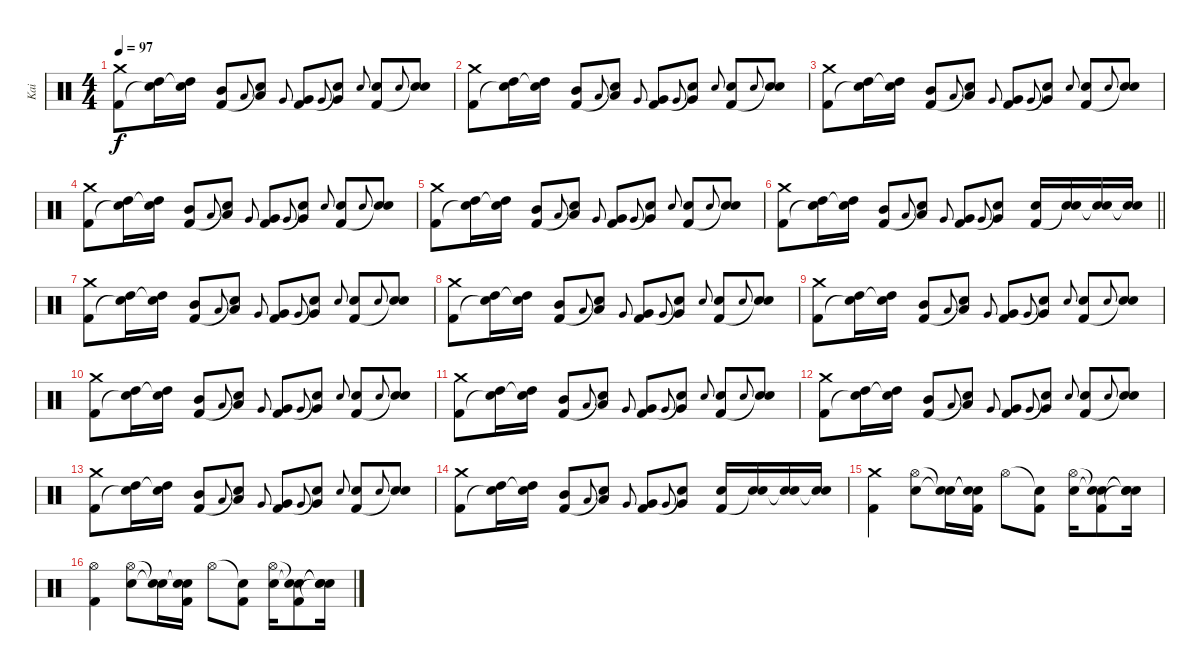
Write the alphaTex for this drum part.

\track ("Kai" "Kai") {instrument percussion}
\staff {score}
\articulation defaults
\ts (4 4)
\tempo 97
\clef neutral
\ks c
("Crash medium (hit)" "Kick (hit) 2").8{dy f} ("High Tom (hit)" "Snare (hit)"{t}).16 ("High Tom (hit)" "Snare (hit)"{t}).16 ("Mid Tom (hit)" "Kick (hit) 2").8 "Low Tom (hit)".8{gr onbeat} ("Low Tom (hit)" "Snare (hit)"{t}).8 "Very Low Tom (hit)".8{gr onbeat} ("Very Low Tom (hit)" "Kick (hit) 2").8 "Very Low Tom (hit)".8{gr onbeat} ("Very Low Tom (hit)" "Snare (hit)"{t}).8 "Snare (hit) 2".8{gr onbeat} ("Snare (hit) 2" "Kick (hit) 2").8 "Snare (hit) 2".8{gr onbeat} ("Snare (hit) 2" "Snare (hit)"{t}).8 |
("Crash medium (hit)" "Kick (hit) 2").8 ("High Tom (hit)" "Snare (hit)"{t}).16 ("High Tom (hit)" "Snare (hit)"{t}).16 ("Mid Tom (hit)" "Kick (hit) 2").8 "Low Tom (hit)".8{gr onbeat} ("Low Tom (hit)" "Snare (hit)"{t}).8 "Very Low Tom (hit)".8{gr onbeat} ("Very Low Tom (hit)" "Kick (hit) 2").8 "Very Low Tom (hit)".8{gr onbeat} ("Very Low Tom (hit)" "Snare (hit)"{t}).8 "Snare (hit) 2".8{gr onbeat} ("Snare (hit) 2" "Kick (hit) 2").8 "Snare (hit) 2".8{gr onbeat} ("Snare (hit) 2" "Snare (hit)"{t}).8 |
("Crash medium (hit)" "Kick (hit) 2").8 ("High Tom (hit)" "Snare (hit)"{t}).16 ("High Tom (hit)" "Snare (hit)"{t}).16 ("Mid Tom (hit)" "Kick (hit) 2").8 "Low Tom (hit)".8{gr onbeat} ("Low Tom (hit)" "Snare (hit)"{t}).8 "Very Low Tom (hit)".8{gr onbeat} ("Very Low Tom (hit)" "Kick (hit) 2").8 "Very Low Tom (hit)".8{gr onbeat} ("Very Low Tom (hit)" "Snare (hit)"{t}).8 "Snare (hit) 2".8{gr onbeat} ("Snare (hit) 2" "Kick (hit) 2").8 "Snare (hit) 2".8{gr onbeat} ("Snare (hit) 2" "Snare (hit)"{t}).8 |
("Crash medium (hit)" "Kick (hit) 2").8 ("High Tom (hit)" "Snare (hit)"{t}).16 ("High Tom (hit)" "Snare (hit)"{t}).16 ("Mid Tom (hit)" "Kick (hit) 2").8 "Low Tom (hit)".8{gr onbeat} ("Low Tom (hit)" "Snare (hit)"{t}).8 "Very Low Tom (hit)".8{gr onbeat} ("Very Low Tom (hit)" "Kick (hit) 2").8 "Very Low Tom (hit)".8{gr onbeat} ("Very Low Tom (hit)" "Snare (hit)"{t}).8 "Snare (hit) 2".8{gr onbeat} ("Snare (hit) 2" "Kick (hit) 2").8 "Snare (hit) 2".8{gr onbeat} ("Snare (hit) 2" "Snare (hit)"{t}).8 |
("Crash medium (hit)" "Kick (hit) 2").8 ("High Tom (hit)" "Snare (hit)"{t}).16 ("High Tom (hit)" "Snare (hit)"{t}).16 ("Mid Tom (hit)" "Kick (hit) 2").8 "Low Tom (hit)".8{gr onbeat} ("Low Tom (hit)" "Snare (hit)"{t}).8 "Very Low Tom (hit)".8{gr onbeat} ("Very Low Tom (hit)" "Kick (hit) 2").8 "Very Low Tom (hit)".8{gr onbeat} ("Very Low Tom (hit)" "Snare (hit)"{t}).8 "Snare (hit) 2".8{gr onbeat} ("Snare (hit) 2" "Kick (hit) 2").8 "Snare (hit) 2".8{gr onbeat} ("Snare (hit) 2" "Snare (hit)"{t}).8 |
\barLineRight lightlight
("Crash medium (hit)" "Kick (hit) 2").8 ("High Tom (hit)" "Snare (hit)"{t}).16 ("High Tom (hit)" "Snare (hit)"{t}).16 ("Mid Tom (hit)" "Kick (hit) 2").8 "Low Tom (hit)".8{gr onbeat} ("Low Tom (hit)" "Snare (hit)"{t}).8 "Very Low Tom (hit)".8{gr onbeat} ("Very Low Tom (hit)" "Kick (hit) 2").8 "Very Low Tom (hit)".8{gr onbeat} ("Very Low Tom (hit)" "Snare (hit)"{t}).8 ("Snare (hit) 2" "Kick (hit) 2").16 ("Snare (hit) 2" "Snare (hit)"{t}).16 ("Snare (hit) 2" "Snare (hit)"{t}).16 ("Snare (hit) 2" "Snare (hit)"{t}).16 |
("Crash medium (hit)" "Kick (hit) 2").8 ("High Tom (hit)" "Snare (hit)"{t}).16 ("High Tom (hit)" "Snare (hit)"{t}).16 ("Mid Tom (hit)" "Kick (hit) 2").8 "Low Tom (hit)".8{gr onbeat} ("Low Tom (hit)" "Snare (hit)"{t}).8 "Very Low Tom (hit)".8{gr onbeat} ("Very Low Tom (hit)" "Kick (hit) 2").8 "Very Low Tom (hit)".8{gr onbeat} ("Very Low Tom (hit)" "Snare (hit)"{t}).8 "Snare (hit) 2".8{gr onbeat} ("Snare (hit) 2" "Kick (hit) 2").8 "Snare (hit) 2".8{gr onbeat} ("Snare (hit) 2" "Snare (hit)"{t}).8 |
("Crash medium (hit)" "Kick (hit) 2").8 ("High Tom (hit)" "Snare (hit)"{t}).16 ("High Tom (hit)" "Snare (hit)"{t}).16 ("Mid Tom (hit)" "Kick (hit) 2").8 "Low Tom (hit)".8{gr onbeat} ("Low Tom (hit)" "Snare (hit)"{t}).8 "Very Low Tom (hit)".8{gr onbeat} ("Very Low Tom (hit)" "Kick (hit) 2").8 "Very Low Tom (hit)".8{gr onbeat} ("Very Low Tom (hit)" "Snare (hit)"{t}).8 "Snare (hit) 2".8{gr onbeat} ("Snare (hit) 2" "Kick (hit) 2").8 "Snare (hit) 2".8{gr onbeat} ("Snare (hit) 2" "Snare (hit)"{t}).8 |
("Crash medium (hit)" "Kick (hit) 2").8 ("High Tom (hit)" "Snare (hit)"{t}).16 ("High Tom (hit)" "Snare (hit)"{t}).16 ("Mid Tom (hit)" "Kick (hit) 2").8 "Low Tom (hit)".8{gr onbeat} ("Low Tom (hit)" "Snare (hit)"{t}).8 "Very Low Tom (hit)".8{gr onbeat} ("Very Low Tom (hit)" "Kick (hit) 2").8 "Very Low Tom (hit)".8{gr onbeat} ("Very Low Tom (hit)" "Snare (hit)"{t}).8 "Snare (hit) 2".8{gr onbeat} ("Snare (hit) 2" "Kick (hit) 2").8 "Snare (hit) 2".8{gr onbeat} ("Snare (hit) 2" "Snare (hit)"{t}).8 |
("Crash medium (hit)" "Kick (hit) 2").8 ("High Tom (hit)" "Snare (hit)"{t}).16 ("High Tom (hit)" "Snare (hit)"{t}).16 ("Mid Tom (hit)" "Kick (hit) 2").8 "Low Tom (hit)".8{gr onbeat} ("Low Tom (hit)" "Snare (hit)"{t}).8 "Very Low Tom (hit)".8{gr onbeat} ("Very Low Tom (hit)" "Kick (hit) 2").8 "Very Low Tom (hit)".8{gr onbeat} ("Very Low Tom (hit)" "Snare (hit)"{t}).8 "Snare (hit) 2".8{gr onbeat} ("Snare (hit) 2" "Kick (hit) 2").8 "Snare (hit) 2".8{gr onbeat} ("Snare (hit) 2" "Snare (hit)"{t}).8 |
("Crash medium (hit)" "Kick (hit) 2").8 ("High Tom (hit)" "Snare (hit)"{t}).16 ("High Tom (hit)" "Snare (hit)"{t}).16 ("Mid Tom (hit)" "Kick (hit) 2").8 "Low Tom (hit)".8{gr onbeat} ("Low Tom (hit)" "Snare (hit)"{t}).8 "Very Low Tom (hit)".8{gr onbeat} ("Very Low Tom (hit)" "Kick (hit) 2").8 "Very Low Tom (hit)".8{gr onbeat} ("Very Low Tom (hit)" "Snare (hit)"{t}).8 "Snare (hit) 2".8{gr onbeat} ("Snare (hit) 2" "Kick (hit) 2").8 "Snare (hit) 2".8{gr onbeat} ("Snare (hit) 2" "Snare (hit)"{t}).8 |
("Crash medium (hit)" "Kick (hit) 2").8 ("High Tom (hit)" "Snare (hit)"{t}).16 ("High Tom (hit)" "Snare (hit)"{t}).16 ("Mid Tom (hit)" "Kick (hit) 2").8 "Low Tom (hit)".8{gr onbeat} ("Low Tom (hit)" "Snare (hit)"{t}).8 "Very Low Tom (hit)".8{gr onbeat} ("Very Low Tom (hit)" "Kick (hit) 2").8 "Very Low Tom (hit)".8{gr onbeat} ("Very Low Tom (hit)" "Snare (hit)"{t}).8 "Snare (hit) 2".8{gr onbeat} ("Snare (hit) 2" "Kick (hit) 2").8 "Snare (hit) 2".8{gr onbeat} ("Snare (hit) 2" "Snare (hit)"{t}).8 |
("Crash medium (hit)" "Kick (hit) 2").8 ("High Tom (hit)" "Snare (hit)"{t}).16 ("High Tom (hit)" "Snare (hit)"{t}).16 ("Mid Tom (hit)" "Kick (hit) 2").8 "Low Tom (hit)".8{gr onbeat} ("Low Tom (hit)" "Snare (hit)"{t}).8 "Very Low Tom (hit)".8{gr onbeat} ("Very Low Tom (hit)" "Kick (hit) 2").8 "Very Low Tom (hit)".8{gr onbeat} ("Very Low Tom (hit)" "Snare (hit)"{t}).8 "Snare (hit) 2".8{gr onbeat} ("Snare (hit) 2" "Kick (hit) 2").8 "Snare (hit) 2".8{gr onbeat} ("Snare (hit) 2" "Snare (hit)"{t}).8 |
("Crash medium (hit)" "Kick (hit) 2").8 ("High Tom (hit)" "Snare (hit)"{t}).16 ("High Tom (hit)" "Snare (hit)"{t}).16 ("Mid Tom (hit)" "Kick (hit) 2").8 "Low Tom (hit)".8{gr onbeat} ("Low Tom (hit)" "Snare (hit)"{t}).8 "Very Low Tom (hit)".8{gr onbeat} ("Very Low Tom (hit)" "Kick (hit) 2").8 "Very Low Tom (hit)".8{gr onbeat} ("Very Low Tom (hit)" "Snare (hit)"{t}).8 ("Snare (hit) 2" "Kick (hit) 2").16 ("Snare (hit) 2" "Snare (hit)"{t}).16 ("Snare (hit) 2" "Snare (hit)"{t}).16 ("Snare (hit) 2" "Snare (hit)"{t}).16 |
("Crash medium (hit)" "Kick (hit) 2").4 ("Hi-Hat (open)" "Snare (hit) 2").8 ("Snare (hit)"{t} "Snare (hit)"{t}).16 ("Snare (hit)"{t} "Snare (hit)"{t} "Kick (hit) 2").16 "Hi-Hat (open)".8 ("Snare (hit)"{t} "Kick (hit) 2").8 ("Hi-Hat (open)" "Snare (hit) 2").16 ("Snare (hit)"{t} "Snare (hit)"{t} "Kick (hit) 2").8 ("Snare (hit)"{t} "Snare (hit)"{t} "Snare (hit)"{t}).16 |
("Hi-Hat (open)" "Kick (hit) 2").4 ("Hi-Hat (open)" "Snare (hit) 2").8 ("Snare (hit)"{t} "Snare (hit)"{t}).16 ("Snare (hit)"{t} "Snare (hit)"{t} "Kick (hit) 2").16 "Hi-Hat (open)".8 ("Snare (hit)"{t} "Kick (hit) 2").8 ("Hi-Hat (open)" "Snare (hit) 2").16 ("Snare (hit)"{t} "Snare (hit)"{t} "Kick (hit) 2").8 ("Snare (hit)"{t} "Snare (hit)"{t} "Snare (hit)"{t}).16
